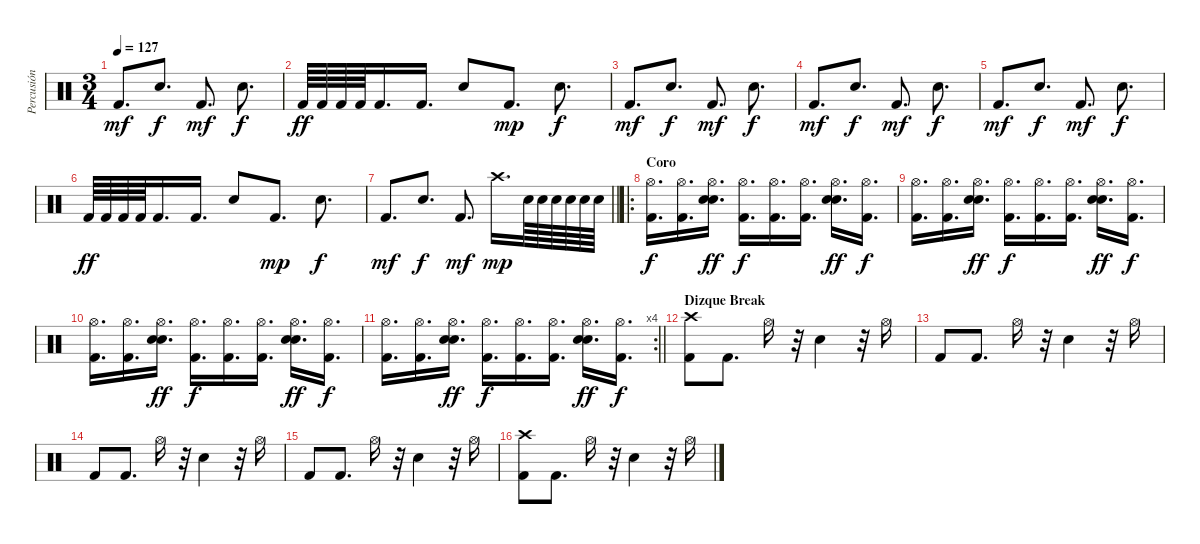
\track ("Percusión" "Percusión") {instrument percussion}
\staff {score}
\articulation defaults
\ts (3 4)
\tempo 127
\clef neutral
\ks c "Kick (hit) 2".8{d dy mf} "Snare (hit) 2".8{d dy f} "Kick (hit) 2".8{d dy mf} "Snare (hit) 2".8{d dy f}
|
"Kick (hit) 2".64{dy ff} "Kick (hit) 2".64 "Kick (hit) 2".64 "Kick (hit) 2".64 "Kick (hit) 2".16{d} "Kick (hit) 2".16{d} "Snare (hit) 2".8 "Kick (hit) 2".8{d dy mp} "Snare (hit) 2".8{d dy f} |
"Kick (hit) 2".8{d dy mf} "Snare (hit) 2".8{d dy f} "Kick (hit) 2".8{d dy mf} "Snare (hit) 2".8{d dy f} |
"Kick (hit) 2".8{d dy mf} "Snare (hit) 2".8{d dy f} "Kick (hit) 2".8{d dy mf} "Snare (hit) 2".8{d dy f} |
"Kick (hit) 2".8{d dy mf} "Snare (hit) 2".8{d dy f} "Kick (hit) 2".8{d dy mf} "Snare (hit) 2".8{d dy f} |
"Kick (hit) 2".64{dy ff} "Kick (hit) 2".64 "Kick (hit) 2".64 "Kick (hit) 2".64 "Kick (hit) 2".16{d} "Kick (hit) 2".16{d} "Snare (hit) 2".8 "Kick (hit) 2".8{d dy mp} "Snare (hit) 2".8{d dy f} |
\barLineRight lightlight "Kick (hit) 2".8{d dy mf} "Snare (hit) 2".8{d dy f} "Kick (hit) 2".8{d dy mf} "Crash high (hit)".16{d dy mp} "Snare (hit) 2".64 "Snare (hit) 2".64 "Snare (hit) 2".64 "Snare (hit) 2".64 "Snare (hit) 2".64 "Snare (hit) 2".64
|
\ro
\section ("" "Coro")
("Hi-Hat (open)" "Kick (hit) 2").16{d dy f} ("Hi-Hat (open)" "Kick (hit) 2").16{d} ("Hi-Hat (open)" "Snare (hit) 2" "Snare (hit) 2").16{d dy ff} ("Hi-Hat (open)" "Kick (hit) 2").16{d dy f} ("Hi-Hat (open)" "Kick (hit) 2").16{d} ("Hi-Hat (open)" "Kick (hit) 2").16{d} ("Hi-Hat (open)" "Snare (hit) 2" "Snare (hit) 2").16{d dy ff} ("Hi-Hat (open)" "Kick (hit) 2").16{d dy f} |
("Hi-Hat (open)" "Kick (hit) 2").16{d} ("Hi-Hat (open)" "Kick (hit) 2").16{d} ("Hi-Hat (open)" "Snare (hit) 2" "Snare (hit) 2").16{d dy ff} ("Hi-Hat (open)" "Kick (hit) 2").16{d dy f} ("Hi-Hat (open)" "Kick (hit) 2").16{d} ("Hi-Hat (open)" "Kick (hit) 2").16{d} ("Hi-Hat (open)" "Snare (hit) 2" "Snare (hit) 2").16{d dy ff} ("Hi-Hat (open)" "Kick (hit) 2").16{d dy f} |
("Hi-Hat (open)" "Kick (hit) 2").16{d} ("Hi-Hat (open)" "Kick (hit) 2").16{d} ("Hi-Hat (open)" "Snare (hit) 2" "Snare (hit) 2").16{d dy ff} ("Hi-Hat (open)" "Kick (hit) 2").16{d dy f} ("Hi-Hat (open)" "Kick (hit) 2").16{d} ("Hi-Hat (open)" "Kick (hit) 2").16{d} ("Hi-Hat (open)" "Snare (hit) 2" "Snare (hit) 2").16{d dy ff} ("Hi-Hat (open)" "Kick (hit) 2").16{d dy f} |
\rc 4
\barLineRight lightlight
("Hi-Hat (open)" "Kick (hit) 2").16{d} ("Hi-Hat (open)" "Kick (hit) 2").16{d} ("Hi-Hat (open)" "Snare (hit) 2" "Snare (hit) 2").16{d dy ff} ("Hi-Hat (open)" "Kick (hit) 2").16{d dy f} ("Hi-Hat (open)" "Kick (hit) 2").16{d} ("Hi-Hat (open)" "Kick (hit) 2").16{d} ("Hi-Hat (open)" "Snare (hit) 2" "Snare (hit) 2").16{d dy ff} ("Hi-Hat (open)" "Kick (hit) 2").16{d dy f} |
\section ("" "Dizque Break")
("Crash high (hit)" "Kick (hit) 2").8 "Kick (hit) 2".8{d} "Hi-Hat (open)".16 r.32 "Snare (hit) 2".4 r.32 "Hi-Hat (open)".16 |
"Kick (hit) 2".8 "Kick (hit) 2".8{d} "Hi-Hat (open)".16 r.32 "Snare (hit) 2".4 r.32 "Hi-Hat (open)".16 |
"Kick (hit) 2".8 "Kick (hit) 2".8{d} "Hi-Hat (open)".16 r.32 "Snare (hit) 2".4 r.32 "Hi-Hat (open)".16 |
"Kick (hit) 2".8 "Kick (hit) 2".8{d} "Hi-Hat (open)".16 r.32 "Snare (hit) 2".4 r.32 "Hi-Hat (open)".16 |
("Crash high (hit)" "Kick (hit) 2").8 "Kick (hit) 2".8{d} "Hi-Hat (open)".16 r.32 "Snare (hit) 2".4 r.32 "Hi-Hat (open)".16
